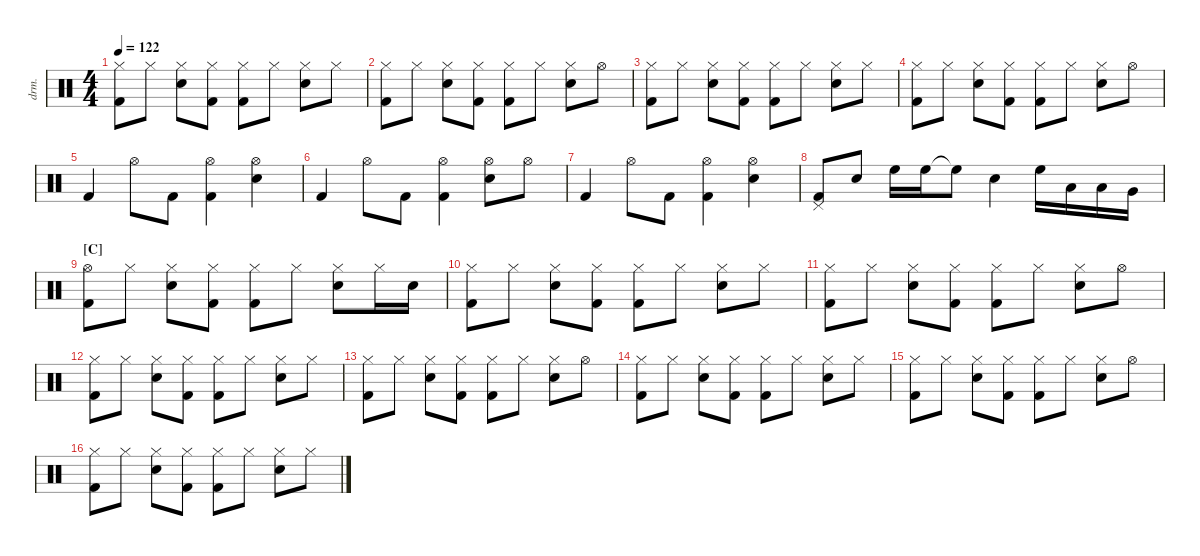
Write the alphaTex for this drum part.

\defaultSystemsLayout 4
\hideDynamics
\bracketExtendMode nobrackets
\track ("Drumkit" "drm.") {defaultSystemsLayout 4 instrument percussion}
\staff {score}
\articulation defaults
\ts (4 4)
\tempo 122
\clef neutral
\ks c
("Hi-Hat (closed)" "Kick (hit) 2").8{dy f beam Down} "Hi-Hat (closed)".8{beam Down} ("Hi-Hat (closed)" "Snare (hit) 2").8{beam Down} ("Hi-Hat (closed)" "Kick (hit) 2").8{beam Down} ("Hi-Hat (closed)" "Kick (hit) 2").8{beam Down} "Hi-Hat (closed)".8{beam Down} ("Hi-Hat (closed)" "Snare (hit) 2").8{beam Down} "Hi-Hat (closed)".8{beam Down} |
("Hi-Hat (closed)" "Kick (hit) 2").8{beam Down} "Hi-Hat (closed)".8{beam Down} ("Hi-Hat (closed)" "Snare (hit) 2").8{beam Down} ("Hi-Hat (closed)" "Kick (hit) 2").8{beam Down} ("Hi-Hat (closed)" "Kick (hit) 2").8{beam Down} "Hi-Hat (closed)".8{beam Down} ("Hi-Hat (closed)" "Snare (hit) 2").8{beam Down} "Hi-Hat (open)".8{beam Down} |
("Hi-Hat (closed)" "Kick (hit) 2").8{beam Down} "Hi-Hat (closed)".8{beam Down} ("Hi-Hat (closed)" "Snare (hit) 2").8{beam Down} ("Hi-Hat (closed)" "Kick (hit) 2").8{beam Down} ("Hi-Hat (closed)" "Kick (hit) 2").8{beam Down} "Hi-Hat (closed)".8{beam Down} ("Hi-Hat (closed)" "Snare (hit) 2").8{beam Down} "Hi-Hat (closed)".8{beam Down} |
("Hi-Hat (closed)" "Kick (hit) 2").8{beam Down} "Hi-Hat (closed)".8{beam Down} ("Hi-Hat (closed)" "Snare (hit) 2").8{beam Down} ("Hi-Hat (closed)" "Kick (hit) 2").8{beam Down} ("Hi-Hat (closed)" "Kick (hit) 2").8{beam Down} "Hi-Hat (closed)".8{beam Down} ("Hi-Hat (closed)" "Snare (hit) 2").8{beam Down} "Hi-Hat (open)".8{beam Down} |
"Kick (hit) 2".4{beam Up} "Hi-Hat (open)".8{beam Down} "Kick (hit) 2".8{beam Down} ("Hi-Hat (open)" "Kick (hit) 2").4{beam Down} ("Hi-Hat (open)" "Snare (hit) 2").4{beam Down} |
"Kick (hit) 2".4{beam Up} "Hi-Hat (open)".8{beam Down} "Kick (hit) 2".8{beam Down} ("Hi-Hat (open)" "Kick (hit) 2").4{beam Down} ("Hi-Hat (open)" "Snare (hit) 2").8{beam Down} "Hi-Hat (open)".8{beam Down} |
"Kick (hit) 2".4{beam Up} "Hi-Hat (open)".8{beam Down} "Kick (hit) 2".8{beam Down} ("Hi-Hat (open)" "Kick (hit) 2").4{beam Down} ("Hi-Hat (open)" "Snare (hit) 2").4{beam Down} |
("Pedal Hi-Hat (hit)" "Kick (hit) 2").8{beam Up} "Snare (hit) 2".8{beam Up} "High Floor Tom (hit)".16{beam Down} "High Floor Tom (hit)".16{beam Down} "High Floor Tom (hit)"{t}.8{beam Down} "Snare (hit) 2".4{beam Down} "High Floor Tom (hit)".16{beam Down} "Low Tom (hit)".16{beam Down} "Low Tom (hit)".16{beam Down} "Very Low Tom (hit)".16{beam Down} |
\section ("C" "")
("Hi-Hat (open)" "Kick (hit) 2").8{beam Down} "Hi-Hat (closed)".8{beam Down} ("Hi-Hat (closed)" "Snare (hit) 2").8{beam Down} ("Hi-Hat (closed)" "Kick (hit) 2").8{beam Down} ("Hi-Hat (closed)" "Kick (hit) 2").8{beam Down} "Hi-Hat (closed)".8{beam Down} ("Hi-Hat (closed)" "Snare (hit) 2").8{beam Down} "Hi-Hat (closed)".16{beam Down} "Snare (hit) 2".16{beam Down} |
("Hi-Hat (closed)" "Kick (hit) 2").8{beam Down} "Hi-Hat (closed)".8{beam Down} ("Hi-Hat (closed)" "Snare (hit) 2").8{beam Down} ("Hi-Hat (closed)" "Kick (hit) 2").8{beam Down} ("Hi-Hat (closed)" "Kick (hit) 2").8{beam Down} "Hi-Hat (closed)".8{beam Down} ("Hi-Hat (closed)" "Snare (hit) 2").8{beam Down} "Hi-Hat (closed)".8{beam Down} |
("Hi-Hat (closed)" "Kick (hit) 2").8{beam Down} "Hi-Hat (closed)".8{beam Down} ("Hi-Hat (closed)" "Snare (hit) 2").8{beam Down} ("Hi-Hat (closed)" "Kick (hit) 2").8{beam Down} ("Hi-Hat (closed)" "Kick (hit) 2").8{beam Down} "Hi-Hat (closed)".8{beam Down} ("Hi-Hat (closed)" "Snare (hit) 2").8{beam Down} "Hi-Hat (open)".8{beam Down} |
("Hi-Hat (closed)" "Kick (hit) 2").8{beam Down} "Hi-Hat (closed)".8{beam Down} ("Hi-Hat (closed)" "Snare (hit) 2").8{beam Down} ("Hi-Hat (closed)" "Kick (hit) 2").8{beam Down} ("Hi-Hat (closed)" "Kick (hit) 2").8{beam Down} "Hi-Hat (closed)".8{beam Down} ("Hi-Hat (closed)" "Snare (hit) 2").8{beam Down} "Hi-Hat (closed)".8{beam Down} |
("Hi-Hat (closed)" "Kick (hit) 2").8{beam Down} "Hi-Hat (closed)".8{beam Down} ("Hi-Hat (closed)" "Snare (hit) 2").8{beam Down} ("Hi-Hat (closed)" "Kick (hit) 2").8{beam Down} ("Hi-Hat (closed)" "Kick (hit) 2").8{beam Down} "Hi-Hat (closed)".8{beam Down} ("Hi-Hat (closed)" "Snare (hit) 2").8{beam Down} "Hi-Hat (open)".8{beam Down} |
("Hi-Hat (closed)" "Kick (hit) 2").8{beam Down} "Hi-Hat (closed)".8{beam Down} ("Hi-Hat (closed)" "Snare (hit) 2").8{beam Down} ("Hi-Hat (closed)" "Kick (hit) 2").8{beam Down} ("Hi-Hat (closed)" "Kick (hit) 2").8{beam Down} "Hi-Hat (closed)".8{beam Down} ("Hi-Hat (closed)" "Snare (hit) 2").8{beam Down} "Hi-Hat (closed)".8{beam Down} |
("Hi-Hat (closed)" "Kick (hit) 2").8{beam Down} "Hi-Hat (closed)".8{beam Down} ("Hi-Hat (closed)" "Snare (hit) 2").8{beam Down} ("Hi-Hat (closed)" "Kick (hit) 2").8{beam Down} ("Hi-Hat (closed)" "Kick (hit) 2").8{beam Down} "Hi-Hat (closed)".8{beam Down} ("Hi-Hat (closed)" "Snare (hit) 2").8{beam Down} "Hi-Hat (open)".8{beam Down} |
("Hi-Hat (closed)" "Kick (hit) 2").8{beam Down} "Hi-Hat (closed)".8{beam Down} ("Hi-Hat (closed)" "Snare (hit) 2").8{beam Down} ("Hi-Hat (closed)" "Kick (hit) 2").8{beam Down} ("Hi-Hat (closed)" "Kick (hit) 2").8{beam Down} "Hi-Hat (closed)".8{beam Down} ("Hi-Hat (closed)" "Snare (hit) 2").8{beam Down} "Hi-Hat (closed)".8{beam Down}
